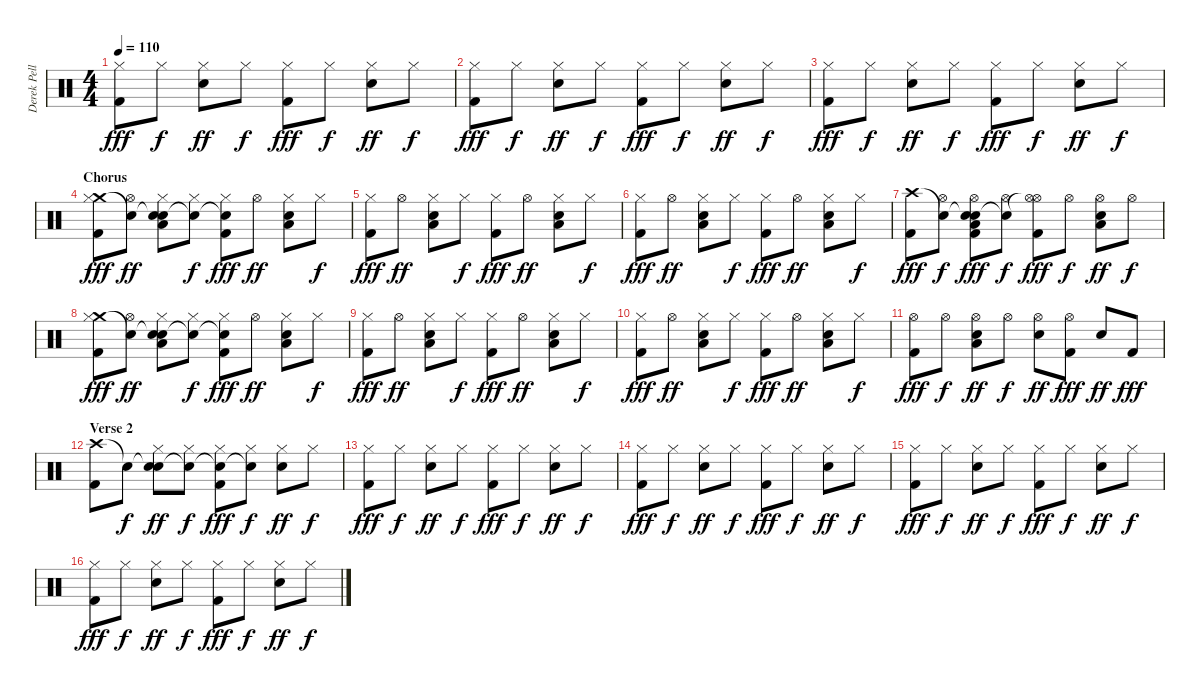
\track ("Derek Pellici" "Derek Pell") {instrument percussion}
\staff {score}
\articulation defaults
\ts (4 4)
\tempo 110
\clef neutral
\ks c
("Hi-Hat (closed)" "Kick (hit) 2").8{dy fff} "Hi-Hat (closed)".8{dy f} ("Hi-Hat (closed)" "Electric Snare (hit)").8{dy ff} "Hi-Hat (closed)".8{dy f} ("Hi-Hat (closed)" "Kick (hit) 2").8{dy fff} "Hi-Hat (closed)".8{dy f} ("Hi-Hat (closed)" "Electric Snare (hit)").8{dy ff} "Hi-Hat (closed)".8{dy f} |
("Hi-Hat (closed)" "Kick (hit) 2").8{dy fff} "Hi-Hat (closed)".8{dy f} ("Hi-Hat (closed)" "Electric Snare (hit)").8{dy ff} "Hi-Hat (closed)".8{dy f} ("Hi-Hat (closed)" "Kick (hit) 2").8{dy fff} "Hi-Hat (closed)".8{dy f} ("Hi-Hat (closed)" "Electric Snare (hit)").8{dy ff} "Hi-Hat (closed)".8{dy f} |
("Hi-Hat (closed)" "Kick (hit) 2").8{dy fff} "Hi-Hat (closed)".8{dy f} ("Hi-Hat (closed)" "Electric Snare (hit)").8{dy ff} "Hi-Hat (closed)".8{dy f} ("Hi-Hat (closed)" "Kick (hit) 2").8{dy fff} "Hi-Hat (closed)".8{dy f} ("Hi-Hat (closed)" "Electric Snare (hit)").8{dy ff} "Hi-Hat (closed)".8{dy f} |
\section ("" "Chorus")
("Crash medium (hit)" "Hi-Hat (closed)" "Kick (hit) 2").8{dy fff} ("Snare (hit)"{t} "Hi-Hat (open)").8{dy ff} ("Snare (hit)"{t} "Hi-Hat (closed)" "Low Floor Tom (hit)" "Snare (hit) 2").8 ("Snare (hit)"{t} "Hi-Hat (closed)").8{dy f} ("Snare (hit)"{t} "Hi-Hat (closed)" "Kick (hit) 2").8{dy fff} "Hi-Hat (open)".8{dy ff} ("Hi-Hat (closed)" "Low Floor Tom (hit)" "Snare (hit) 2").8 "Hi-Hat (closed)".8{dy f} |
("Hi-Hat (closed)" "Kick (hit) 2").8{dy fff} "Hi-Hat (open)".8{dy ff} ("Hi-Hat (closed)" "Low Floor Tom (hit)" "Snare (hit) 2").8 "Hi-Hat (closed)".8{dy f} ("Hi-Hat (closed)" "Kick (hit) 2").8{dy fff} "Hi-Hat (open)".8{dy ff} ("Hi-Hat (closed)" "Low Floor Tom (hit)" "Snare (hit) 2").8 "Hi-Hat (closed)".8{dy f} |
("Hi-Hat (closed)" "Kick (hit) 2").8{dy fff} "Hi-Hat (open)".8{dy ff} ("Hi-Hat (closed)" "Low Floor Tom (hit)" "Snare (hit) 2").8 "Hi-Hat (closed)".8{dy f} ("Hi-Hat (closed)" "Kick (hit) 2").8{dy fff} "Hi-Hat (open)".8{dy ff} ("Hi-Hat (closed)" "Low Floor Tom (hit)" "Snare (hit) 2").8 "Hi-Hat (closed)".8{dy f} |
("Crash high (hit)" "Kick (hit) 2").8{dy fff} ("Snare (hit)"{t} "Hi-Hat (open)").8{dy f} ("Snare (hit) 2"{t} "Hi-Hat (open)" "Low Floor Tom (hit)" "Snare (hit) 2" "Kick (hit) 2").8{dy fff} ("Snare (hit)"{t} "Hi-Hat (open)").8{dy f} ("Hi-Hat (open)"{t} "Hi-Hat (open)" "Kick (hit) 2").8{dy fff} "Hi-Hat (open)".8{dy f} ("Hi-Hat (open)" "Low Floor Tom (hit)" "Snare (hit) 2").8{dy ff} "Hi-Hat (open)".8{dy f} |
("Crash medium (hit)" "Hi-Hat (closed)" "Kick (hit) 2").8{dy fff} ("Snare (hit)"{t} "Hi-Hat (open)").8{dy ff} ("Snare (hit)"{t} "Hi-Hat (closed)" "Low Floor Tom (hit)" "Snare (hit) 2").8 ("Snare (hit)"{t} "Hi-Hat (closed)").8{dy f} ("Snare (hit)"{t} "Hi-Hat (closed)" "Kick (hit) 2").8{dy fff} "Hi-Hat (open)".8{dy ff} ("Hi-Hat (closed)" "Low Floor Tom (hit)" "Snare (hit) 2").8 "Hi-Hat (closed)".8{dy f} |
("Hi-Hat (closed)" "Kick (hit) 2").8{dy fff} "Hi-Hat (open)".8{dy ff} ("Hi-Hat (closed)" "Low Floor Tom (hit)" "Snare (hit) 2").8 "Hi-Hat (closed)".8{dy f} ("Hi-Hat (closed)" "Kick (hit) 2").8{dy fff} "Hi-Hat (open)".8{dy ff} ("Hi-Hat (closed)" "Low Floor Tom (hit)" "Snare (hit) 2").8 "Hi-Hat (closed)".8{dy f} |
("Hi-Hat (closed)" "Kick (hit) 2").8{dy fff} "Hi-Hat (open)".8{dy ff} ("Hi-Hat (closed)" "Low Floor Tom (hit)" "Snare (hit) 2").8 "Hi-Hat (closed)".8{dy f} ("Hi-Hat (closed)" "Kick (hit) 2").8{dy fff} "Hi-Hat (open)".8{dy ff} ("Hi-Hat (closed)" "Low Floor Tom (hit)" "Snare (hit) 2").8 "Hi-Hat (closed)".8{dy f} |
("Hi-Hat (open)" "Kick (hit) 2").8{dy fff} "Hi-Hat (open)".8{dy f} ("Hi-Hat (open)" "Low Floor Tom (hit)" "Snare (hit) 2").8{dy ff} "Hi-Hat (open)".8{dy f} ("Hi-Hat (open)" "Snare (hit) 2").8{dy ff} ("Hi-Hat (open)" "Kick (hit) 2").8{dy fff} "Snare (hit) 2".8{dy ff} "Kick (hit) 2".8{dy fff} |
\section ("" "Verse 2")
("Crash high (hit)" "Kick (hit) 2").8 "Snare (hit)"{t}.8{dy f} ("Snare (hit)"{t} "Hi-Hat (closed)" "Electric Snare (hit)").8{dy ff} ("Snare (hit)"{t} "Hi-Hat (closed)").8{dy f} ("Snare (hit)"{t} "Hi-Hat (closed)" "Kick (hit) 2").8{dy fff} ("Snare (hit)"{t} "Hi-Hat (closed)").8{dy f} ("Hi-Hat (closed)" "Electric Snare (hit)").8{dy ff} "Hi-Hat (closed)".8{dy f} |
("Hi-Hat (closed)" "Kick (hit) 2").8{dy fff} "Hi-Hat (closed)".8{dy f} ("Hi-Hat (closed)" "Electric Snare (hit)").8{dy ff} "Hi-Hat (closed)".8{dy f} ("Hi-Hat (closed)" "Kick (hit) 2").8{dy fff} "Hi-Hat (closed)".8{dy f} ("Hi-Hat (closed)" "Electric Snare (hit)").8{dy ff} "Hi-Hat (closed)".8{dy f} |
("Hi-Hat (closed)" "Kick (hit) 2").8{dy fff} "Hi-Hat (closed)".8{dy f} ("Hi-Hat (closed)" "Electric Snare (hit)").8{dy ff} "Hi-Hat (closed)".8{dy f} ("Hi-Hat (closed)" "Kick (hit) 2").8{dy fff} "Hi-Hat (closed)".8{dy f} ("Hi-Hat (closed)" "Electric Snare (hit)").8{dy ff} "Hi-Hat (closed)".8{dy f} |
("Hi-Hat (closed)" "Kick (hit) 2").8{dy fff} "Hi-Hat (closed)".8{dy f} ("Hi-Hat (closed)" "Electric Snare (hit)").8{dy ff} "Hi-Hat (closed)".8{dy f} ("Hi-Hat (closed)" "Kick (hit) 2").8{dy fff} "Hi-Hat (closed)".8{dy f} ("Hi-Hat (closed)" "Electric Snare (hit)").8{dy ff} "Hi-Hat (closed)".8{dy f} |
("Hi-Hat (closed)" "Kick (hit) 2").8{dy fff} "Hi-Hat (closed)".8{dy f} ("Hi-Hat (closed)" "Electric Snare (hit)").8{dy ff} "Hi-Hat (closed)".8{dy f} ("Hi-Hat (closed)" "Kick (hit) 2").8{dy fff} "Hi-Hat (closed)".8{dy f} ("Hi-Hat (closed)" "Electric Snare (hit)").8{dy ff} "Hi-Hat (closed)".8{dy f}
